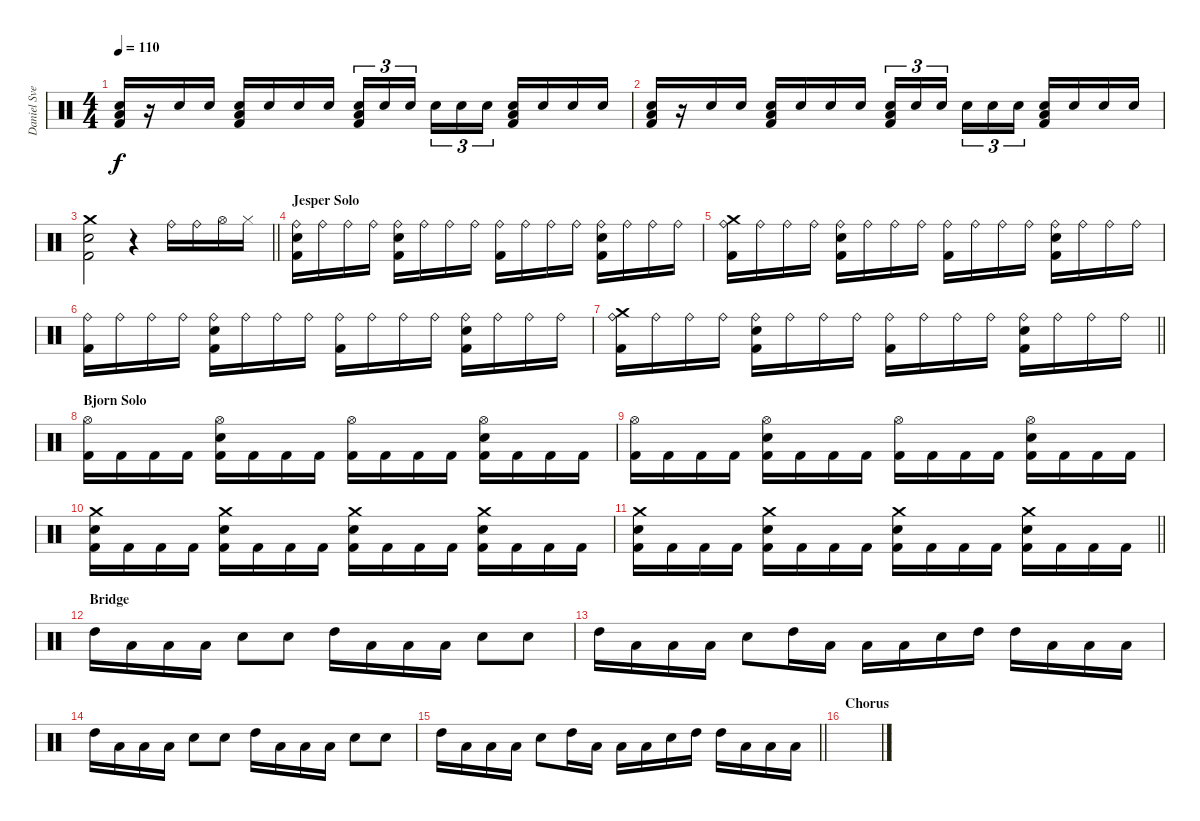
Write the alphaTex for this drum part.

\track ("Daniel Svennson" "Daniel Sve") {instrument percussion}
\staff {score}
\articulation defaults
\ts (4 4)
\tempo 110
\clef neutral
\ks c
("Low Floor Tom (hit)" "Snare (hit) 2" "Kick (hit) 2").16{dy f} r.16 "Snare (hit) 2".16 "Snare (hit) 2".16 ("Low Floor Tom (hit)" "Snare (hit) 2" "Kick (hit) 2").16 "Snare (hit) 2".16 "Snare (hit) 2".16 "Snare (hit) 2".16 ("Low Floor Tom (hit)" "Snare (hit) 2" "Kick (hit) 2").16{tu (3 2)} "Snare (hit) 2".16{tu (3 2)} "Snare (hit) 2".16{tu (3 2)} "Snare (hit) 2".16{tu (3 2)} "Snare (hit) 2".16{tu (3 2)} "Snare (hit) 2".16{tu (3 2)} ("Low Floor Tom (hit)" "Snare (hit) 2" "Kick (hit) 2").16 "Snare (hit) 2".16 "Snare (hit) 2".16 "Snare (hit) 2".16 |
("Low Floor Tom (hit)" "Snare (hit) 2" "Kick (hit) 2").16 r.16 "Snare (hit) 2".16 "Snare (hit) 2".16 ("Low Floor Tom (hit)" "Snare (hit) 2" "Kick (hit) 2").16 "Snare (hit) 2".16 "Snare (hit) 2".16 "Snare (hit) 2".16 ("Low Floor Tom (hit)" "Snare (hit) 2" "Kick (hit) 2").16{tu (3 2)} "Snare (hit) 2".16{tu (3 2)} "Snare (hit) 2".16{tu (3 2)} "Snare (hit) 2".16{tu (3 2)} "Snare (hit) 2".16{tu (3 2)} "Snare (hit) 2".16{tu (3 2)} ("Low Floor Tom (hit)" "Snare (hit) 2" "Kick (hit) 2").16 "Snare (hit) 2".16 "Snare (hit) 2".16 "Snare (hit) 2".16 |
\barLineRight lightlight
("Kick (hit) 2" "Snare (hit) 2" "Crash medium (hit)").2 r.4 "Ride (bell)".16 "Ride (bell)".16 "Hi-Hat (open)".16 "Hi-Hat (closed)".16 |
\section ("" "Jesper Solo")
("Snare (hit) 2" "Ride (bell)" "Kick (hit) 2").16 "Ride (bell)".16 "Ride (bell)".16 "Ride (bell)".16 ("Ride (bell)" "Snare (hit) 2" "Kick (hit) 2").16 "Ride (bell)".16 "Ride (bell)".16 "Ride (bell)".16 ("Ride (bell)" "Kick (hit) 2").16 "Ride (bell)".16 "Ride (bell)".16 "Ride (bell)".16 ("Ride (bell)" "Snare (hit) 2" "Kick (hit) 2").16 "Ride (bell)".16 "Ride (bell)".16 "Ride (bell)".16 |
("Crash medium (hit)" "Ride (bell)" "Kick (hit) 2").16 "Ride (bell)".16 "Ride (bell)".16 "Ride (bell)".16 ("Ride (bell)" "Snare (hit) 2" "Kick (hit) 2").16 "Ride (bell)".16 "Ride (bell)".16 "Ride (bell)".16 ("Ride (bell)" "Kick (hit) 2").16 "Ride (bell)".16 "Ride (bell)".16 "Ride (bell)".16 ("Ride (bell)" "Snare (hit) 2" "Kick (hit) 2").16 "Ride (bell)".16 "Ride (bell)".16 "Ride (bell)".16 |
("Ride (bell)" "Kick (hit) 2").16 "Ride (bell)".16 "Ride (bell)".16 "Ride (bell)".16 ("Ride (bell)" "Snare (hit) 2" "Kick (hit) 2").16 "Ride (bell)".16 "Ride (bell)".16 "Ride (bell)".16 ("Ride (bell)" "Kick (hit) 2").16 "Ride (bell)".16 "Ride (bell)".16 "Ride (bell)".16 ("Ride (bell)" "Snare (hit) 2" "Kick (hit) 2").16 "Ride (bell)".16 "Ride (bell)".16 "Ride (bell)".16 |
\barLineRight lightlight
("Crash medium (hit)" "Ride (bell)" "Kick (hit) 2").16 "Ride (bell)".16 "Ride (bell)".16 "Ride (bell)".16 ("Ride (bell)" "Snare (hit) 2" "Kick (hit) 2").16 "Ride (bell)".16 "Ride (bell)".16 "Ride (bell)".16 ("Ride (bell)" "Kick (hit) 2").16 "Ride (bell)".16 "Ride (bell)".16 "Ride (bell)".16 ("Ride (bell)" "Snare (hit) 2" "Kick (hit) 2").16 "Ride (bell)".16 "Ride (bell)".16 "Ride (bell)".16 |
\section ("" "Bjorn Solo")
("Kick (hit) 2" "Hi-Hat (open)").16 "Kick (hit) 2".16 "Kick (hit) 2".16 "Kick (hit) 2".16 ("Kick (hit) 2" "Snare (hit) 2" "Hi-Hat (open)").16 "Kick (hit) 2".16 "Kick (hit) 2".16 "Kick (hit) 2".16 ("Kick (hit) 2" "Hi-Hat (open)").16 "Kick (hit) 2".16 "Kick (hit) 2".16 "Kick (hit) 2".16 ("Kick (hit) 2" "Snare (hit) 2" "Hi-Hat (open)").16 "Kick (hit) 2".16 "Kick (hit) 2".16 "Kick (hit) 2".16 |
("Kick (hit) 2" "Hi-Hat (open)").16 "Kick (hit) 2".16 "Kick (hit) 2".16 "Kick (hit) 2".16 ("Kick (hit) 2" "Snare (hit) 2" "Hi-Hat (open)").16 "Kick (hit) 2".16 "Kick (hit) 2".16 "Kick (hit) 2".16 ("Kick (hit) 2" "Hi-Hat (open)").16 "Kick (hit) 2".16 "Kick (hit) 2".16 "Kick (hit) 2".16 ("Kick (hit) 2" "Snare (hit) 2" "Hi-Hat (open)").16 "Kick (hit) 2".16 "Kick (hit) 2".16 "Kick (hit) 2".16 |
("Kick (hit) 2" "Snare (hit) 2" "Crash medium (hit)").16 "Kick (hit) 2".16 "Kick (hit) 2".16 "Kick (hit) 2".16 ("Kick (hit) 2" "Snare (hit) 2" "Crash medium (hit)").16 "Kick (hit) 2".16 "Kick (hit) 2".16 "Kick (hit) 2".16 ("Kick (hit) 2" "Snare (hit) 2" "Crash medium (hit)").16 "Kick (hit) 2".16 "Kick (hit) 2".16 "Kick (hit) 2".16 ("Kick (hit) 2" "Snare (hit) 2" "Crash medium (hit)").16 "Kick (hit) 2".16 "Kick (hit) 2".16 "Kick (hit) 2".16 |
\barLineRight lightlight
("Kick (hit) 2" "Snare (hit) 2" "Crash medium (hit)").16 "Kick (hit) 2".16 "Kick (hit) 2".16 "Kick (hit) 2".16 ("Kick (hit) 2" "Snare (hit) 2" "Crash medium (hit)").16 "Kick (hit) 2".16 "Kick (hit) 2".16 "Kick (hit) 2".16 ("Kick (hit) 2" "Snare (hit) 2" "Crash medium (hit)").16 "Kick (hit) 2".16 "Kick (hit) 2".16 "Kick (hit) 2".16 ("Kick (hit) 2" "Snare (hit) 2" "Crash medium (hit)").16 "Kick (hit) 2".16 "Kick (hit) 2".16 "Kick (hit) 2".16 |
\section ("" "Bridge")
"High Tom (hit)".16 "Low Tom (hit)".16 "Low Floor Tom (hit)".16 "Low Floor Tom (hit)".16 "Snare (hit) 2".8 "Snare (hit) 2".8 "High Tom (hit)".16 "Low Tom (hit)".16 "Low Floor Tom (hit)".16 "Low Floor Tom (hit)".16 "Snare (hit) 2".8 "Snare (hit) 2".8 |
"High Tom (hit)".16 "Low Tom (hit)".16 "Low Floor Tom (hit)".16 "Low Floor Tom (hit)".16 "Snare (hit) 2".8 "High Tom (hit)".16 "Low Tom (hit)".16 "Low Floor Tom (hit)".16 "Low Floor Tom (hit)".16 "Snare (hit) 2".16 "High Tom (hit)".16 "High Tom (hit)".16 "Low Tom (hit)".16 "Low Tom (hit)".16 "Low Floor Tom (hit)".16 |
"High Tom (hit)".16 "Low Tom (hit)".16 "Low Floor Tom (hit)".16 "Low Floor Tom (hit)".16 "Snare (hit) 2".8 "Snare (hit) 2".8 "High Tom (hit)".16 "Low Tom (hit)".16 "Low Floor Tom (hit)".16 "Low Floor Tom (hit)".16 "Snare (hit) 2".8 "Snare (hit) 2".8 |
\barLineRight lightlight "High Tom (hit)".16 "Low Tom (hit)".16 "Low Floor Tom (hit)".16 "Low Floor Tom (hit)".16 "Snare (hit) 2".8 "High Tom (hit)".16 "Low Tom (hit)".16 "Low Floor Tom (hit)".16 "Low Floor Tom (hit)".16 "Snare (hit) 2".16 "High Tom (hit)".16 "High Tom (hit)".16 "Low Tom (hit)".16 "Low Tom (hit)".16 "Low Floor Tom (hit)".16
|
\section ("" "Chorus")
